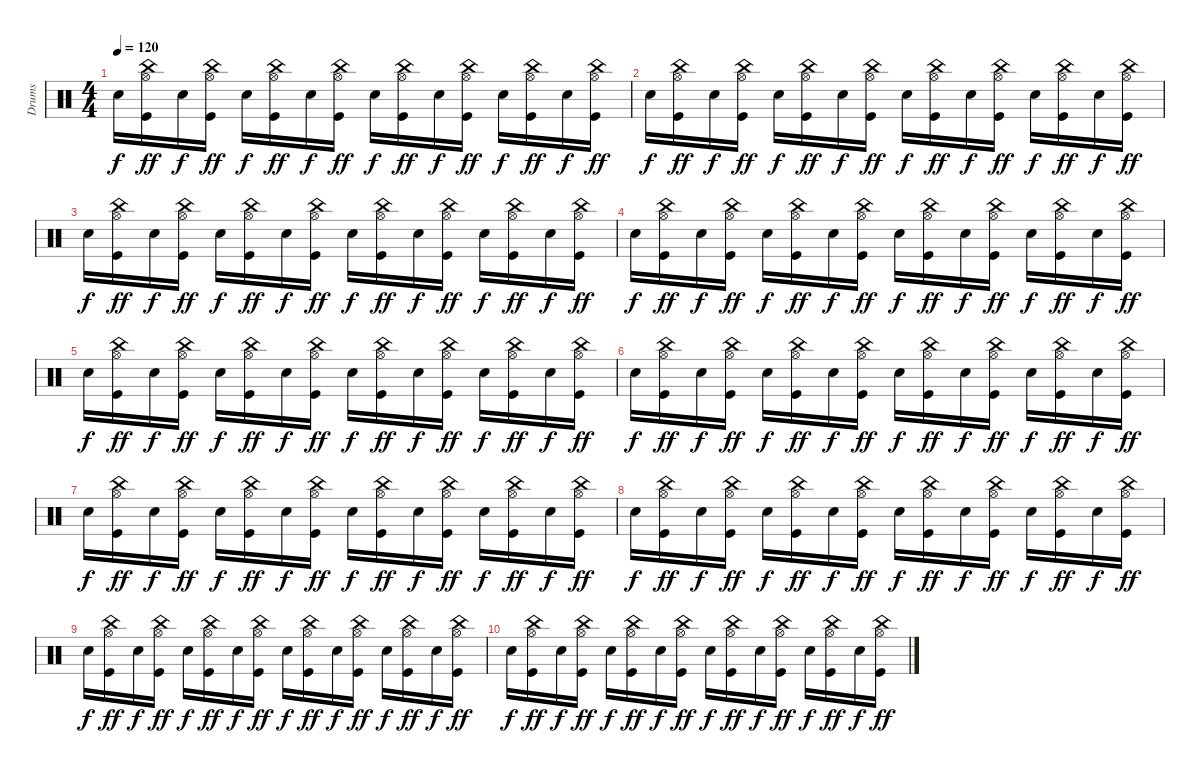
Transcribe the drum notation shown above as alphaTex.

\track ("Drums" "Drums") {instrument percussion}
\staff {score}
\articulation defaults
\ts (4 4)
\tempo 120
\clef neutral
\ks c "Electric Snare (hit)".16{dy f}
("China (hit)" "Hi-Hat (open)" "Kick (hit)").16{dy ff} "Electric Snare (hit)".16{dy f} ("China (hit)" "Hi-Hat (open)" "Kick (hit)").16{dy ff} "Electric Snare (hit)".16{dy f} ("China (hit)" "Hi-Hat (open)" "Kick (hit)").16{dy ff} "Electric Snare (hit)".16{dy f} ("China (hit)" "Hi-Hat (open)" "Kick (hit)").16{dy ff} "Electric Snare (hit)".16{dy f} ("China (hit)" "Hi-Hat (open)" "Kick (hit)").16{dy ff} "Electric Snare (hit)".16{dy f} ("China (hit)" "Hi-Hat (open)" "Kick (hit)").16{dy ff} "Electric Snare (hit)".16{dy f} ("China (hit)" "Hi-Hat (open)" "Kick (hit)").16{dy ff} "Electric Snare (hit)".16{dy f} ("China (hit)" "Hi-Hat (open)" "Kick (hit)").16{dy ff} |
"Electric Snare (hit)".16{dy f} ("China (hit)" "Hi-Hat (open)" "Kick (hit)").16{dy ff} "Electric Snare (hit)".16{dy f} ("China (hit)" "Hi-Hat (open)" "Kick (hit)").16{dy ff} "Electric Snare (hit)".16{dy f} ("China (hit)" "Hi-Hat (open)" "Kick (hit)").16{dy ff} "Electric Snare (hit)".16{dy f} ("China (hit)" "Hi-Hat (open)" "Kick (hit)").16{dy ff} "Electric Snare (hit)".16{dy f} ("China (hit)" "Hi-Hat (open)" "Kick (hit)").16{dy ff} "Electric Snare (hit)".16{dy f} ("China (hit)" "Hi-Hat (open)" "Kick (hit)").16{dy ff} "Electric Snare (hit)".16{dy f} ("China (hit)" "Hi-Hat (open)" "Kick (hit)").16{dy ff} "Electric Snare (hit)".16{dy f} ("China (hit)" "Hi-Hat (open)" "Kick (hit)").16{dy ff} |
"Electric Snare (hit)".16{dy f} ("China (hit)" "Hi-Hat (open)" "Kick (hit)").16{dy ff} "Electric Snare (hit)".16{dy f} ("China (hit)" "Hi-Hat (open)" "Kick (hit)").16{dy ff} "Electric Snare (hit)".16{dy f} ("China (hit)" "Hi-Hat (open)" "Kick (hit)").16{dy ff} "Electric Snare (hit)".16{dy f} ("China (hit)" "Hi-Hat (open)" "Kick (hit)").16{dy ff} "Electric Snare (hit)".16{dy f} ("China (hit)" "Hi-Hat (open)" "Kick (hit)").16{dy ff} "Electric Snare (hit)".16{dy f} ("China (hit)" "Hi-Hat (open)" "Kick (hit)").16{dy ff} "Electric Snare (hit)".16{dy f} ("China (hit)" "Hi-Hat (open)" "Kick (hit)").16{dy ff} "Electric Snare (hit)".16{dy f} ("China (hit)" "Hi-Hat (open)" "Kick (hit)").16{dy ff} |
"Electric Snare (hit)".16{dy f} ("China (hit)" "Hi-Hat (open)" "Kick (hit)").16{dy ff} "Electric Snare (hit)".16{dy f} ("China (hit)" "Hi-Hat (open)" "Kick (hit)").16{dy ff} "Electric Snare (hit)".16{dy f} ("China (hit)" "Hi-Hat (open)" "Kick (hit)").16{dy ff} "Electric Snare (hit)".16{dy f} ("China (hit)" "Hi-Hat (open)" "Kick (hit)").16{dy ff} "Electric Snare (hit)".16{dy f} ("China (hit)" "Hi-Hat (open)" "Kick (hit)").16{dy ff} "Electric Snare (hit)".16{dy f} ("China (hit)" "Hi-Hat (open)" "Kick (hit)").16{dy ff} "Electric Snare (hit)".16{dy f} ("China (hit)" "Hi-Hat (open)" "Kick (hit)").16{dy ff} "Electric Snare (hit)".16{dy f} ("China (hit)" "Hi-Hat (open)" "Kick (hit)").16{dy ff} |
"Electric Snare (hit)".16{dy f} ("China (hit)" "Hi-Hat (open)" "Kick (hit)").16{dy ff} "Electric Snare (hit)".16{dy f} ("China (hit)" "Hi-Hat (open)" "Kick (hit)").16{dy ff} "Electric Snare (hit)".16{dy f} ("China (hit)" "Hi-Hat (open)" "Kick (hit)").16{dy ff} "Electric Snare (hit)".16{dy f} ("China (hit)" "Hi-Hat (open)" "Kick (hit)").16{dy ff} "Electric Snare (hit)".16{dy f} ("China (hit)" "Hi-Hat (open)" "Kick (hit)").16{dy ff} "Electric Snare (hit)".16{dy f} ("China (hit)" "Hi-Hat (open)" "Kick (hit)").16{dy ff} "Electric Snare (hit)".16{dy f} ("China (hit)" "Hi-Hat (open)" "Kick (hit)").16{dy ff} "Electric Snare (hit)".16{dy f} ("China (hit)" "Hi-Hat (open)" "Kick (hit)").16{dy ff} |
"Electric Snare (hit)".16{dy f} ("China (hit)" "Hi-Hat (open)" "Kick (hit)").16{dy ff} "Electric Snare (hit)".16{dy f} ("China (hit)" "Hi-Hat (open)" "Kick (hit)").16{dy ff} "Electric Snare (hit)".16{dy f} ("China (hit)" "Hi-Hat (open)" "Kick (hit)").16{dy ff} "Electric Snare (hit)".16{dy f} ("China (hit)" "Hi-Hat (open)" "Kick (hit)").16{dy ff} "Electric Snare (hit)".16{dy f} ("China (hit)" "Hi-Hat (open)" "Kick (hit)").16{dy ff} "Electric Snare (hit)".16{dy f} ("China (hit)" "Hi-Hat (open)" "Kick (hit)").16{dy ff} "Electric Snare (hit)".16{dy f} ("China (hit)" "Hi-Hat (open)" "Kick (hit)").16{dy ff} "Electric Snare (hit)".16{dy f} ("China (hit)" "Hi-Hat (open)" "Kick (hit)").16{dy ff} |
"Electric Snare (hit)".16{dy f} ("China (hit)" "Hi-Hat (open)" "Kick (hit)").16{dy ff} "Electric Snare (hit)".16{dy f} ("China (hit)" "Hi-Hat (open)" "Kick (hit)").16{dy ff} "Electric Snare (hit)".16{dy f} ("China (hit)" "Hi-Hat (open)" "Kick (hit)").16{dy ff} "Electric Snare (hit)".16{dy f} ("China (hit)" "Hi-Hat (open)" "Kick (hit)").16{dy ff} "Electric Snare (hit)".16{dy f} ("China (hit)" "Hi-Hat (open)" "Kick (hit)").16{dy ff} "Electric Snare (hit)".16{dy f} ("China (hit)" "Hi-Hat (open)" "Kick (hit)").16{dy ff} "Electric Snare (hit)".16{dy f} ("China (hit)" "Hi-Hat (open)" "Kick (hit)").16{dy ff} "Electric Snare (hit)".16{dy f} ("China (hit)" "Hi-Hat (open)" "Kick (hit)").16{dy ff} |
"Electric Snare (hit)".16{dy f} ("China (hit)" "Hi-Hat (open)" "Kick (hit)").16{dy ff} "Electric Snare (hit)".16{dy f} ("China (hit)" "Hi-Hat (open)" "Kick (hit)").16{dy ff} "Electric Snare (hit)".16{dy f} ("China (hit)" "Hi-Hat (open)" "Kick (hit)").16{dy ff} "Electric Snare (hit)".16{dy f} ("China (hit)" "Hi-Hat (open)" "Kick (hit)").16{dy ff} "Electric Snare (hit)".16{dy f} ("China (hit)" "Hi-Hat (open)" "Kick (hit)").16{dy ff} "Electric Snare (hit)".16{dy f} ("China (hit)" "Hi-Hat (open)" "Kick (hit)").16{dy ff} "Electric Snare (hit)".16{dy f} ("China (hit)" "Hi-Hat (open)" "Kick (hit)").16{dy ff} "Electric Snare (hit)".16{dy f} ("China (hit)" "Hi-Hat (open)" "Kick (hit)").16{dy ff} |
"Electric Snare (hit)".16{dy f} ("China (hit)" "Hi-Hat (open)" "Kick (hit)").16{dy ff} "Electric Snare (hit)".16{dy f} ("China (hit)" "Hi-Hat (open)" "Kick (hit)").16{dy ff} "Electric Snare (hit)".16{dy f} ("China (hit)" "Hi-Hat (open)" "Kick (hit)").16{dy ff} "Electric Snare (hit)".16{dy f} ("China (hit)" "Hi-Hat (open)" "Kick (hit)").16{dy ff} "Electric Snare (hit)".16{dy f} ("China (hit)" "Hi-Hat (open)" "Kick (hit)").16{dy ff} "Electric Snare (hit)".16{dy f} ("China (hit)" "Hi-Hat (open)" "Kick (hit)").16{dy ff} "Electric Snare (hit)".16{dy f} ("China (hit)" "Hi-Hat (open)" "Kick (hit)").16{dy ff} "Electric Snare (hit)".16{dy f} ("China (hit)" "Hi-Hat (open)" "Kick (hit)").16{dy ff} |
"Electric Snare (hit)".16{dy f} ("China (hit)" "Hi-Hat (open)" "Kick (hit)").16{dy ff} "Electric Snare (hit)".16{dy f} ("China (hit)" "Hi-Hat (open)" "Kick (hit)").16{dy ff} "Electric Snare (hit)".16{dy f} ("China (hit)" "Hi-Hat (open)" "Kick (hit)").16{dy ff} "Electric Snare (hit)".16{dy f} ("China (hit)" "Hi-Hat (open)" "Kick (hit)").16{dy ff} "Electric Snare (hit)".16{dy f} ("China (hit)" "Hi-Hat (open)" "Kick (hit)").16{dy ff} "Electric Snare (hit)".16{dy f} ("China (hit)" "Hi-Hat (open)" "Kick (hit)").16{dy ff} "Electric Snare (hit)".16{dy f} ("China (hit)" "Hi-Hat (open)" "Kick (hit)").16{dy ff} "Electric Snare (hit)".16{dy f} ("China (hit)" "Hi-Hat (open)" "Kick (hit)").16{dy ff}
